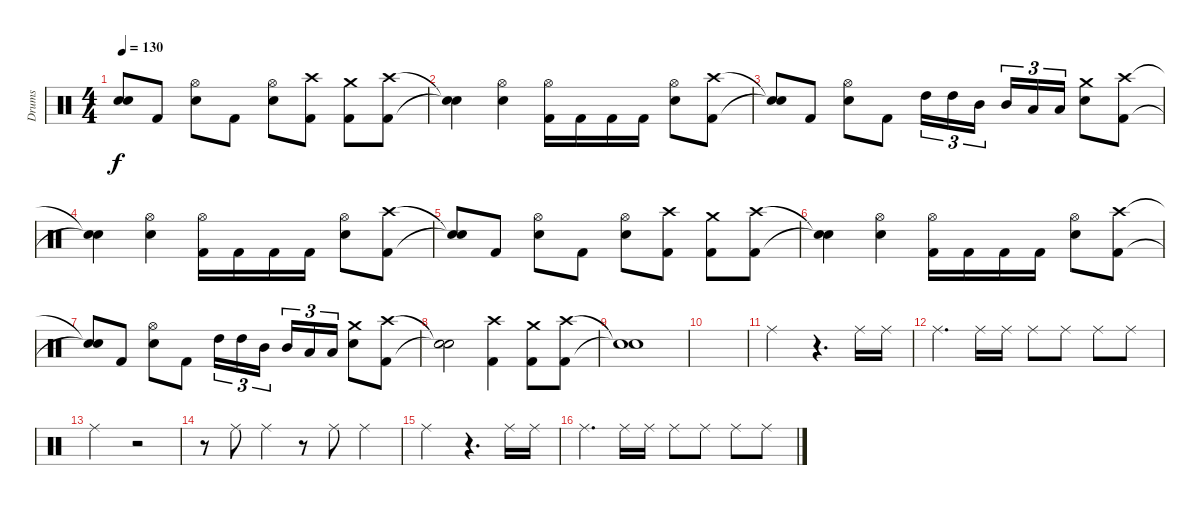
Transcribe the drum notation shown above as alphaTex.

\track ("Drums" "Drums") {instrument percussion}
\staff {score}
\articulation defaults
\ts (4 4)
\tempo 130
\clef neutral
\ks c
("Snare (hit)"{t} "Snare (hit)"{t}).8{dy f} "Kick (hit) 2".8 ("Snare (hit) 2" "Hi-Hat (open)").8 "Kick (hit) 2".8 ("Snare (hit) 2" "Hi-Hat (open)").8 ("Crash high (hit)" "Kick (hit) 2").8 ("Crash medium (hit)" "Kick (hit) 2").8 ("Crash high (hit)" "Kick (hit) 2").8 |
("Snare (hit)"{t} "Snare (hit)"{t}).4 ("Snare (hit) 2" "Hi-Hat (open)").4 ("Kick (hit) 2" "Hi-Hat (open)").16 "Kick (hit) 2".16 "Kick (hit) 2".16 "Kick (hit) 2".16 ("Snare (hit) 2" "Hi-Hat (open)").8 ("Kick (hit) 2" "Crash high (hit)").8 |
("Snare (hit)"{t} "Snare (hit)"{t}).8 "Kick (hit) 2".8 ("Snare (hit) 2" "Hi-Hat (open)").8 "Kick (hit) 2".8 "High Tom (hit)".16{tu (3 2)} "High Tom (hit)".16{tu (3 2)} "Mid Tom (hit)".16{tu (3 2) beam splitsecondary} "Mid Tom (hit)".16{tu (3 2)} "Low Tom (hit)".16{tu (3 2)} "Low Tom (hit)".16{tu (3 2)} ("Snare (hit) 2" "Crash medium (hit)").8 ("Kick (hit) 2" "Crash high (hit)").8 |
("Snare (hit)"{t} "Snare (hit)"{t}).4 ("Snare (hit) 2" "Hi-Hat (open)").4 ("Kick (hit) 2" "Hi-Hat (open)").16 "Kick (hit) 2".16 "Kick (hit) 2".16 "Kick (hit) 2".16 ("Snare (hit) 2" "Hi-Hat (open)").8 ("Kick (hit) 2" "Crash high (hit)").8 |
("Snare (hit)"{t} "Snare (hit)"{t}).8 "Kick (hit) 2".8 ("Snare (hit) 2" "Hi-Hat (open)").8 "Kick (hit) 2".8 ("Snare (hit) 2" "Hi-Hat (open)").8 ("Crash high (hit)" "Kick (hit) 2").8 ("Crash medium (hit)" "Kick (hit) 2").8 ("Crash high (hit)" "Kick (hit) 2").8 |
("Snare (hit)"{t} "Snare (hit)"{t}).4 ("Snare (hit) 2" "Hi-Hat (open)").4 ("Kick (hit) 2" "Hi-Hat (open)").16 "Kick (hit) 2".16 "Kick (hit) 2".16 "Kick (hit) 2".16 ("Snare (hit) 2" "Hi-Hat (open)").8 ("Kick (hit) 2" "Crash high (hit)").8 |
("Snare (hit)"{t} "Snare (hit)"{t}).8 "Kick (hit) 2".8 ("Snare (hit) 2" "Hi-Hat (open)").8 "Kick (hit) 2".8 "High Tom (hit)".16{tu (3 2)} "High Tom (hit)".16{tu (3 2)} "Mid Tom (hit)".16{tu (3 2) beam splitsecondary} "Mid Tom (hit)".16{tu (3 2)} "Low Tom (hit)".16{tu (3 2)} "Low Tom (hit)".16{tu (3 2)} ("Snare (hit) 2" "Crash medium (hit)").8 ("Kick (hit) 2" "Crash high (hit)").8 |
("Snare (hit)"{t} "Snare (hit)"{t}).2 ("Kick (hit) 2" "Crash high (hit)").4 ("Kick (hit) 2" "Crash medium (hit)").8 ("Kick (hit) 2" "Crash high (hit)").8 |
("Snare (hit)"{t} "Snare (hit)"{t}).1 |
|
"Ride (middle)".2 r.4{d} "Ride (middle)".16 "Ride (middle)".16 |
"Ride (middle)".4{d} "Ride (middle)".16 "Ride (middle)".16 "Ride (middle)".8 "Ride (middle)".8 "Ride (middle)".8 "Ride (middle)".8 |
"Ride (middle)".2 r.2 |
r.8 "Ride (middle)".8 "Ride (middle)".4 r.8 "Ride (middle)".8 "Ride (middle)".4 |
"Ride (middle)".2 r.4{d} "Ride (middle)".16 "Ride (middle)".16 |
"Ride (middle)".4{d} "Ride (middle)".16 "Ride (middle)".16 "Ride (middle)".8 "Ride (middle)".8 "Ride (middle)".8 "Ride (middle)".8
